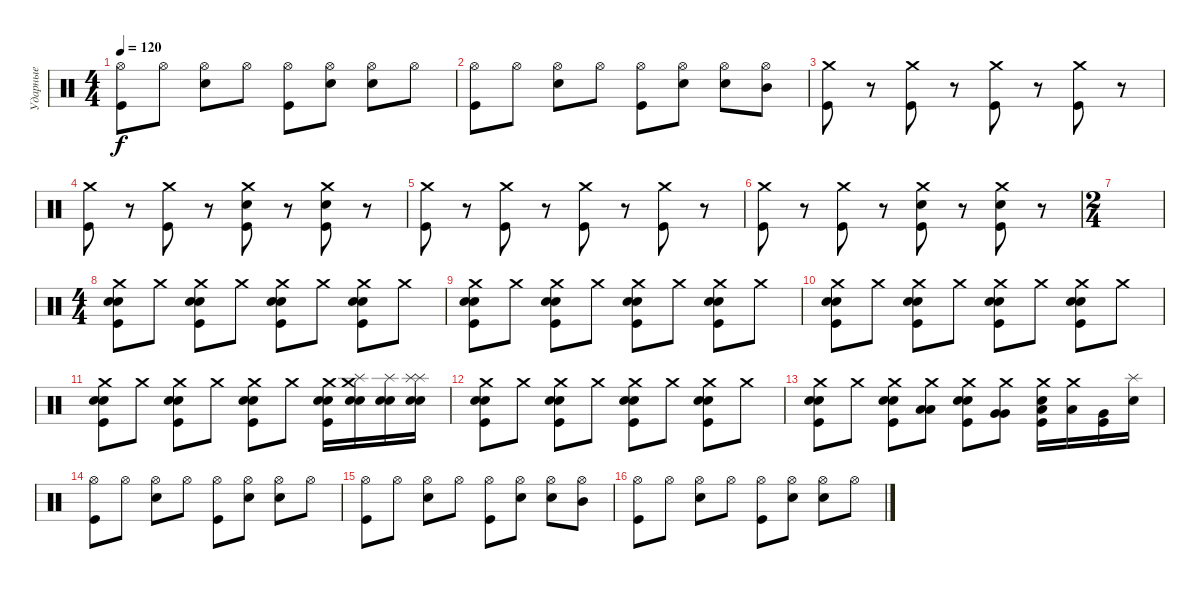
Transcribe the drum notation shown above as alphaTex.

\track ("Ударные" "Ударные") {instrument percussion}
\staff {score}
\articulation defaults
\ts (4 4)
\tempo 120
\clef neutral
\ks c
("Hi-Hat (open)" "Kick (hit)").8{dy f} "Hi-Hat (open)".8 ("Hi-Hat (open)" "Snare (hit) 2").8 "Hi-Hat (open)".8 ("Hi-Hat (open)" "Kick (hit)").8 ("Hi-Hat (open)" "Electric Snare (hit)").8 ("Hi-Hat (open)" "Snare (hit) 2").8 "Hi-Hat (open)".8 |
("Hi-Hat (open)" "Kick (hit)").8 "Hi-Hat (open)".8 ("Hi-Hat (open)" "Snare (hit) 2").8 "Hi-Hat (open)".8 ("Hi-Hat (open)" "Kick (hit)").8 ("Hi-Hat (open)" "Electric Snare (hit)").8 ("Hi-Hat (open)" "Snare (hit) 2").8 ("Hi-Hat (open)" "Mid Tom (hit)").8 |
("Crash medium (hit)" "Kick (hit)").8 r.8 ("Crash medium (hit)" "Kick (hit)").8 r.8 ("Crash medium (hit)" "Kick (hit)").8 r.8 ("Crash medium (hit)" "Kick (hit)").8 r.8 |
("Crash medium (hit)" "Kick (hit)").8 r.8 ("Crash medium (hit)" "Kick (hit)").8 r.8 ("Crash medium (hit)" "Electric Snare (hit)" "Kick (hit)").8 r.8 ("Crash medium (hit)" "Snare (hit) 2" "Kick (hit)").8 r.8 |
("Crash medium (hit)" "Kick (hit)").8 r.8 ("Crash medium (hit)" "Kick (hit)").8 r.8 ("Crash medium (hit)" "Kick (hit)").8 r.8 ("Crash medium (hit)" "Kick (hit)").8 r.8 |
("Crash medium (hit)" "Kick (hit)").8 r.8 ("Crash medium (hit)" "Kick (hit)").8 r.8 ("Crash medium (hit)" "Electric Snare (hit)" "Kick (hit)").8 r.8 ("Crash medium (hit)" "Snare (hit) 2" "Kick (hit)").8 r.8 |
\ts (2 4)
|
\ts (4 4)
("Crash medium (hit)" "Electric Snare (hit)" "Electric Snare (hit)" "Kick (hit)").8 "Crash medium (hit)".8 ("Crash medium (hit)" "Electric Snare (hit)" "Electric Snare (hit)" "Kick (hit)").8 "Crash medium (hit)".8 ("Crash medium (hit)" "Electric Snare (hit)" "Electric Snare (hit)" "Kick (hit)").8 "Crash medium (hit)".8 ("Crash medium (hit)" "Electric Snare (hit)" "Electric Snare (hit)" "Kick (hit)").8 "Crash medium (hit)".8 |
("Crash medium (hit)" "Electric Snare (hit)" "Electric Snare (hit)" "Kick (hit)").8 "Crash medium (hit)".8 ("Crash medium (hit)" "Electric Snare (hit)" "Electric Snare (hit)" "Kick (hit)").8 "Crash medium (hit)".8 ("Crash medium (hit)" "Electric Snare (hit)" "Electric Snare (hit)" "Kick (hit)").8 "Crash medium (hit)".8 ("Crash medium (hit)" "Electric Snare (hit)" "Electric Snare (hit)" "Kick (hit)").8 "Crash medium (hit)".8 |
("Crash medium (hit)" "Electric Snare (hit)" "Electric Snare (hit)" "Kick (hit)").8 "Crash medium (hit)".8 ("Crash medium (hit)" "Electric Snare (hit)" "Electric Snare (hit)" "Kick (hit)").8 "Crash medium (hit)".8 ("Crash medium (hit)" "Electric Snare (hit)" "Electric Snare (hit)" "Kick (hit)").8 "Crash medium (hit)".8 ("Crash medium (hit)" "Electric Snare (hit)" "Electric Snare (hit)" "Kick (hit)").8 "Crash medium (hit)".8 |
("Crash medium (hit)" "Electric Snare (hit)" "Electric Snare (hit)" "Kick (hit)").8 "Crash medium (hit)".8 ("Crash medium (hit)" "Electric Snare (hit)" "Electric Snare (hit)" "Kick (hit)").8 "Crash medium (hit)".8 ("Crash medium (hit)" "Electric Snare (hit)" "Electric Snare (hit)" "Kick (hit)").8 "Crash medium (hit)".8 ("Crash medium (hit)" "Electric Snare (hit)" "Electric Snare (hit)" "Kick (hit)").16 ("Crash medium (hit)" "Splash (hit)" "Snare (hit) 2" "Snare (hit) 2").16 ("Splash (hit)" "Snare (hit) 2" "Snare (hit) 2").16 ("Splash (hit)" "Splash (hit)" "Electric Snare (hit)" "Electric Snare (hit)").16 |
("Crash medium (hit)" "Electric Snare (hit)" "Electric Snare (hit)" "Kick (hit)").8 "Crash medium (hit)".8 ("Crash medium (hit)" "Electric Snare (hit)" "Electric Snare (hit)" "Kick (hit)").8 "Crash medium (hit)".8 ("Crash medium (hit)" "Electric Snare (hit)" "Electric Snare (hit)" "Kick (hit)").8 "Crash medium (hit)".8 ("Crash medium (hit)" "Electric Snare (hit)" "Electric Snare (hit)" "Kick (hit)").8 "Crash medium (hit)".8 |
("Crash medium (hit)" "Electric Snare (hit)" "Electric Snare (hit)" "Kick (hit)").8 "Crash medium (hit)".8 ("Crash medium (hit)" "Electric Snare (hit)" "Electric Snare (hit)" "Kick (hit)").8 ("Crash medium (hit)" "Low Floor Tom (hit)" "Low Floor Tom (hit)").8 ("Crash medium (hit)" "Electric Snare (hit)" "Electric Snare (hit)" "Kick (hit)").8 ("Crash medium (hit)" "Very Low Tom (hit)" "Very Low Tom (hit)").8 ("Crash medium (hit)" "Low Floor Tom (hit)" "Electric Snare (hit)" "Kick (hit)").16 ("Crash medium (hit)" "Low Floor Tom (hit)").16 ("Very Low Tom (hit)" "Kick (hit)").16 ("Splash (hit)" "Electric Snare (hit)").16 |
("Hi-Hat (open)" "Kick (hit)").8 "Hi-Hat (open)".8 ("Hi-Hat (open)" "Snare (hit) 2").8 "Hi-Hat (open)".8 ("Hi-Hat (open)" "Kick (hit)").8 ("Hi-Hat (open)" "Electric Snare (hit)").8 ("Hi-Hat (open)" "Snare (hit) 2").8 "Hi-Hat (open)".8 |
("Hi-Hat (open)" "Kick (hit)").8 "Hi-Hat (open)".8 ("Hi-Hat (open)" "Snare (hit) 2").8 "Hi-Hat (open)".8 ("Hi-Hat (open)" "Kick (hit)").8 ("Hi-Hat (open)" "Electric Snare (hit)").8 ("Hi-Hat (open)" "Snare (hit) 2").8 ("Hi-Hat (open)" "Mid Tom (hit)").8 |
("Hi-Hat (open)" "Kick (hit)").8 "Hi-Hat (open)".8 ("Hi-Hat (open)" "Snare (hit) 2").8 "Hi-Hat (open)".8 ("Hi-Hat (open)" "Kick (hit)").8 ("Hi-Hat (open)" "Electric Snare (hit)").8 ("Hi-Hat (open)" "Snare (hit) 2").8 "Hi-Hat (open)".8
